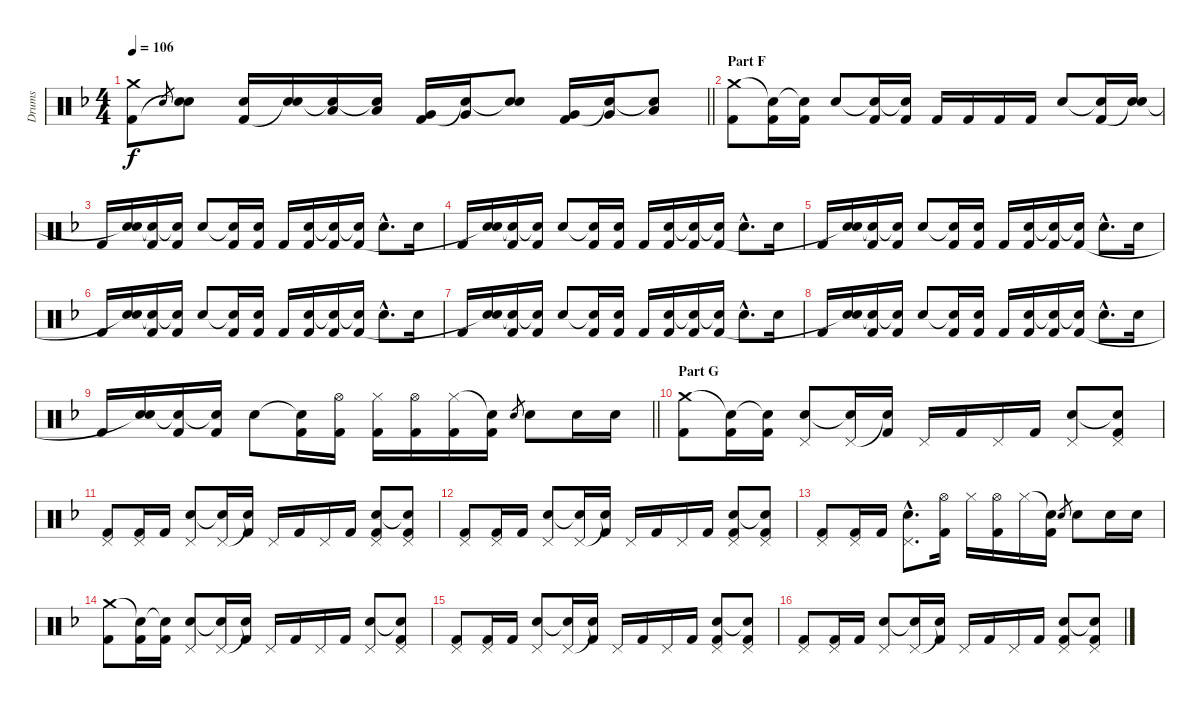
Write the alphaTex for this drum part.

\track ("Drums" "Drums") {instrument percussion}
\staff {score}
\articulation defaults
\ts (4 4)
\tempo 106
\clef neutral
\barLineRight lightlight
\ks f
("Crash medium (hit)" "Kick (hit) 2").8{dy f} "Electric Snare (hit)".8{gr} ("Electric Snare (hit)" "Snare (hit)"{t}).8 ("Electric Snare (hit)" "Kick (hit) 2").16 ("Electric Snare (hit)" "Snare (hit)"{t}).16 ("Low Tom (hit)" "Snare (hit)"{t}).16 ("Low Tom (hit)" "Snare (hit)"{t}).16 ("Very Low Tom (hit)" "Kick (hit) 2").16 ("Very Low Tom (hit)" "Snare (hit)"{t}).16 ("Electric Snare (hit)" "Snare (hit)"{t}).8 ("Very Low Tom (hit)" "Kick (hit) 2").16 ("Very Low Tom (hit)" "Snare (hit)"{t}).16 ("Low Floor Tom (hit)" "Snare (hit)"{t}).8 |
\section ("" "Part F")
("Crash medium (hit)" "Kick (hit) 2").8 ("Snare (hit)"{t} "Kick (hit) 2").16 ("Snare (hit)"{t} "Kick (hit) 2").16 "Electric Snare (hit)".8 ("Snare (hit)"{t} "Kick (hit) 2").16 ("Snare (hit)"{t} "Kick (hit) 2").16 "Kick (hit) 2".16 "Kick (hit) 2".16 "Kick (hit) 2".16 "Kick (hit) 2".16 "Electric Snare (hit)".8 ("Snare (hit)"{t} "Kick (hit) 2").16 ("Electric Snare (hit)" "Snare (hit)"{t}).16 |
"Kick (hit) 2".16 ("Electric Snare (hit)" "Snare (hit)"{t}).16 ("Snare (hit)"{t} "Kick (hit) 2").16 ("Snare (hit)"{t} "Kick (hit) 2").16 "Electric Snare (hit)".8 ("Snare (hit)"{t} "Kick (hit) 2").16 ("Electric Snare (hit)" "Kick (hit) 2").16 "Kick (hit) 2".16 ("Electric Snare (hit)" "Kick (hit) 2").16 ("Snare (hit)"{t} "Kick (hit) 2").16 ("Snare (hit)"{t} "Kick (hit) 2").16 "Electric Snare (hit)"{hac}.8{d} "Electric Snare (hit)".16 |
"Kick (hit) 2".16 ("Electric Snare (hit)" "Snare (hit)"{t}).16 ("Snare (hit)"{t} "Kick (hit) 2").16 ("Snare (hit)"{t} "Kick (hit) 2").16 "Electric Snare (hit)".8 ("Snare (hit)"{t} "Kick (hit) 2").16 ("Electric Snare (hit)" "Kick (hit) 2").16 "Kick (hit) 2".16 ("Electric Snare (hit)" "Kick (hit) 2").16 ("Snare (hit)"{t} "Kick (hit) 2").16 ("Snare (hit)"{t} "Kick (hit) 2").16 "Electric Snare (hit)"{hac}.8{d} "Electric Snare (hit)".16 |
"Kick (hit) 2".16 ("Electric Snare (hit)" "Snare (hit)"{t}).16 ("Snare (hit)"{t} "Kick (hit) 2").16 ("Snare (hit)"{t} "Kick (hit) 2").16 "Electric Snare (hit)".8 ("Snare (hit)"{t} "Kick (hit) 2").16 ("Electric Snare (hit)" "Kick (hit) 2").16 "Kick (hit) 2".16 ("Electric Snare (hit)" "Kick (hit) 2").16 ("Snare (hit)"{t} "Kick (hit) 2").16 ("Snare (hit)"{t} "Kick (hit) 2").16 "Electric Snare (hit)"{hac}.8{d} "Electric Snare (hit)".16 |
"Kick (hit) 2".16 ("Electric Snare (hit)" "Snare (hit)"{t}).16 ("Snare (hit)"{t} "Kick (hit) 2").16 ("Snare (hit)"{t} "Kick (hit) 2").16 "Electric Snare (hit)".8 ("Snare (hit)"{t} "Kick (hit) 2").16 ("Electric Snare (hit)" "Kick (hit) 2").16 "Kick (hit) 2".16 ("Electric Snare (hit)" "Kick (hit) 2").16 ("Snare (hit)"{t} "Kick (hit) 2").16 ("Snare (hit)"{t} "Kick (hit) 2").16 "Electric Snare (hit)"{hac}.8{d} "Electric Snare (hit)".16 |
"Kick (hit) 2".16 ("Electric Snare (hit)" "Snare (hit)"{t}).16 ("Snare (hit)"{t} "Kick (hit) 2").16 ("Snare (hit)"{t} "Kick (hit) 2").16 "Electric Snare (hit)".8 ("Snare (hit)"{t} "Kick (hit) 2").16 ("Electric Snare (hit)" "Kick (hit) 2").16 "Kick (hit) 2".16 ("Electric Snare (hit)" "Kick (hit) 2").16 ("Snare (hit)"{t} "Kick (hit) 2").16 ("Snare (hit)"{t} "Kick (hit) 2").16 "Electric Snare (hit)"{hac}.8{d} "Electric Snare (hit)".16 |
"Kick (hit) 2".16 ("Electric Snare (hit)" "Snare (hit)"{t}).16 ("Snare (hit)"{t} "Kick (hit) 2").16 ("Snare (hit)"{t} "Kick (hit) 2").16 "Electric Snare (hit)".8 ("Snare (hit)"{t} "Kick (hit) 2").16 ("Electric Snare (hit)" "Kick (hit) 2").16 "Kick (hit) 2".16 ("Electric Snare (hit)" "Kick (hit) 2").16 ("Snare (hit)"{t} "Kick (hit) 2").16 ("Snare (hit)"{t} "Kick (hit) 2").16 "Electric Snare (hit)"{hac}.8{d} "Electric Snare (hit)".16 |
\barLineRight lightlight "Kick (hit) 2".16
("Electric Snare (hit)" "Snare (hit)"{t}).16 ("Snare (hit)"{t} "Kick (hit) 2").16 ("Snare (hit)"{t} "Kick (hit) 2").16 "Electric Snare (hit)".8 ("Snare (hit)"{t} "Kick (hit) 2").16 ("Hi-Hat (open)" "Kick (hit) 2").16 ("Hi-Hat (closed)" "Kick (hit) 2").16 ("Hi-Hat (open)" "Kick (hit) 2").16 ("Hi-Hat (closed)" "Kick (hit) 2").16 ("Snare (hit)"{t} "Kick (hit) 2").16 "Electric Snare (hit)".8{gr} "Electric Snare (hit)".8 "Electric Snare (hit)".16 "Electric Snare (hit)".16 |
\section ("" "Part G")
("Crash medium (hit)" "Kick (hit) 2").8 ("Snare (hit)"{t} "Kick (hit) 2").16 ("Snare (hit)"{t} "Kick (hit) 2").16 ("Pedal Hi-Hat (hit)" "Electric Snare (hit)").8 ("Pedal Hi-Hat (hit)" "Snare (hit)"{t}).16 ("Snare (hit)"{t} "Kick (hit) 2").16 "Pedal Hi-Hat (hit)".16 "Kick (hit) 2".16 "Pedal Hi-Hat (hit)".16 "Kick (hit) 2".16 ("Pedal Hi-Hat (hit)" "Electric Snare (hit)").8 ("Pedal Hi-Hat (hit)" "Snare (hit)"{t} "Kick (hit) 2").8 |
("Pedal Hi-Hat (hit)" "Kick (hit) 2").8 ("Pedal Hi-Hat (hit)" "Kick (hit) 2").16 "Kick (hit) 2".16 ("Pedal Hi-Hat (hit)" "Electric Snare (hit)").8 ("Pedal Hi-Hat (hit)" "Snare (hit)"{t}).16 ("Snare (hit)"{t} "Kick (hit) 2").16 "Pedal Hi-Hat (hit)".16 "Kick (hit) 2".16 "Pedal Hi-Hat (hit)".16 "Kick (hit) 2".16 ("Pedal Hi-Hat (hit)" "Electric Snare (hit)" "Kick (hit) 2").8 ("Pedal Hi-Hat (hit)" "Snare (hit)"{t} "Kick (hit) 2").8 |
("Pedal Hi-Hat (hit)" "Kick (hit) 2").8 ("Pedal Hi-Hat (hit)" "Kick (hit) 2").16 "Kick (hit) 2".16 ("Pedal Hi-Hat (hit)" "Electric Snare (hit)").8 ("Pedal Hi-Hat (hit)" "Snare (hit)"{t}).16 ("Snare (hit)"{t} "Kick (hit) 2").16 "Pedal Hi-Hat (hit)".16 "Kick (hit) 2".16 "Pedal Hi-Hat (hit)".16 "Kick (hit) 2".16 ("Pedal Hi-Hat (hit)" "Electric Snare (hit)" "Kick (hit) 2").8 ("Pedal Hi-Hat (hit)" "Snare (hit)"{t} "Kick (hit) 2").8 |
("Pedal Hi-Hat (hit)" "Kick (hit) 2").8 ("Pedal Hi-Hat (hit)" "Kick (hit) 2").16 "Kick (hit) 2".16 ("Pedal Hi-Hat (hit)"{hac} "Electric Snare (hit)"{hac}).8{d} ("Hi-Hat (open)" "Kick (hit) 2").16 "Hi-Hat (closed)".16 ("Hi-Hat (open)" "Kick (hit) 2").16 "Hi-Hat (closed)".16 ("Snare (hit)"{t} "Kick (hit) 2").16 "Electric Snare (hit)".8{gr} "Electric Snare (hit)".8 "Electric Snare (hit)".16 "Electric Snare (hit)".16 |
("Crash medium (hit)" "Kick (hit) 2").8 ("Snare (hit)"{t} "Kick (hit) 2").16 ("Snare (hit)"{t} "Kick (hit) 2").16 ("Pedal Hi-Hat (hit)" "Electric Snare (hit)").8 ("Pedal Hi-Hat (hit)" "Snare (hit)"{t}).16 ("Snare (hit)"{t} "Kick (hit) 2").16 "Pedal Hi-Hat (hit)".16 "Kick (hit) 2".16 "Pedal Hi-Hat (hit)".16 "Kick (hit) 2".16 ("Pedal Hi-Hat (hit)" "Electric Snare (hit)").8 ("Pedal Hi-Hat (hit)" "Snare (hit)"{t} "Kick (hit) 2").8 |
("Pedal Hi-Hat (hit)" "Kick (hit) 2").8 ("Pedal Hi-Hat (hit)" "Kick (hit) 2").16 "Kick (hit) 2".16 ("Pedal Hi-Hat (hit)" "Electric Snare (hit)").8 ("Pedal Hi-Hat (hit)" "Snare (hit)"{t}).16 ("Snare (hit)"{t} "Kick (hit) 2").16 "Pedal Hi-Hat (hit)".16 "Kick (hit) 2".16 "Pedal Hi-Hat (hit)".16 "Kick (hit) 2".16 ("Pedal Hi-Hat (hit)" "Electric Snare (hit)" "Kick (hit) 2").8 ("Pedal Hi-Hat (hit)" "Snare (hit)"{t} "Kick (hit) 2").8 |
("Pedal Hi-Hat (hit)" "Kick (hit) 2").8 ("Pedal Hi-Hat (hit)" "Kick (hit) 2").16 "Kick (hit) 2".16 ("Pedal Hi-Hat (hit)" "Electric Snare (hit)").8 ("Pedal Hi-Hat (hit)" "Snare (hit)"{t}).16 ("Snare (hit)"{t} "Kick (hit) 2").16 "Pedal Hi-Hat (hit)".16 "Kick (hit) 2".16 "Pedal Hi-Hat (hit)".16 "Kick (hit) 2".16 ("Pedal Hi-Hat (hit)" "Electric Snare (hit)" "Kick (hit) 2").8 ("Pedal Hi-Hat (hit)" "Snare (hit)"{t} "Kick (hit) 2").8
